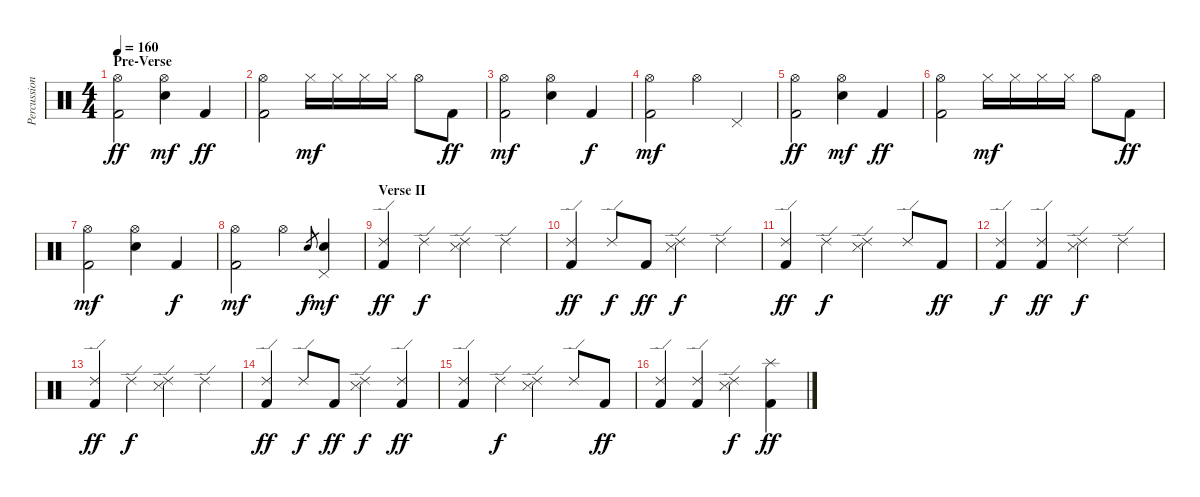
\track ("Percussion" "Percussion") {instrument percussion}
\staff {score}
\articulation defaults
\ts (4 4)
\section ("" "Pre-Verse")
\tempo 160
\clef neutral
\ks c
("Hi-Hat (open)" "Kick (hit) 2").2{dy ff} ("Hi-Hat (open)" "Electric Snare (hit)").4{dy mf} "Kick (hit) 2".4{dy ff} |
("Hi-Hat (open)" "Kick (hit) 2").2 "Hi-Hat (closed)".16{dy mf} "Hi-Hat (closed)".16 "Hi-Hat (closed)".16 "Hi-Hat (closed)".16 "Hi-Hat (open)".8 "Kick (hit) 2".8{dy ff} |
("Hi-Hat (open)" "Kick (hit) 2").2{dy mf} ("Hi-Hat (open)" "Electric Snare (hit)").4 "Kick (hit) 2".4{dy f} |
("Hi-Hat (open)" "Kick (hit) 2").2{dy mf} "Hi-Hat (open)".4 "Pedal Hi-Hat (hit)".4 |
("Hi-Hat (open)" "Kick (hit) 2").2{dy ff} ("Hi-Hat (open)" "Electric Snare (hit)").4{dy mf} "Kick (hit) 2".4{dy ff} |
("Hi-Hat (open)" "Kick (hit) 2").2 "Hi-Hat (closed)".16{dy mf} "Hi-Hat (closed)".16 "Hi-Hat (closed)".16 "Hi-Hat (closed)".16 "Hi-Hat (open)".8 "Kick (hit) 2".8{dy ff} |
("Hi-Hat (open)" "Kick (hit) 2").2{dy mf} ("Hi-Hat (open)" "Electric Snare (hit)").4 "Kick (hit) 2".4{dy f} |
("Hi-Hat (open)" "Kick (hit) 2").2{dy mf} "Hi-Hat (open)".4 "Electric Snare (hit)".8{gr dy f} ("Pedal Hi-Hat (hit)" "Electric Snare (hit)").4{dy mf} |
\section ("" "Verse II")
("Ride (edge) 2" "Kick (hit) 2").4{dy ff} "Ride (edge) 2".4{dy f} ("Ride (edge) 2" "Snare (side stick) 3").4 "Ride (edge) 2".4 |
("Ride (edge) 2" "Kick (hit) 2").4{dy ff} "Ride (edge) 2".8{dy f} "Kick (hit) 2".8{dy ff} ("Ride (edge) 2" "Snare (side stick) 3").4{dy f} "Ride (edge) 2".4 |
("Ride (edge) 2" "Kick (hit) 2").4{dy ff} "Ride (edge) 2".4{dy f} ("Ride (edge) 2" "Snare (side stick) 3").4 "Ride (edge) 2".8 "Kick (hit) 2".8{dy ff} |
("Ride (edge) 2" "Kick (hit) 2").4{dy f} ("Ride (edge) 2" "Kick (hit) 2").4{dy ff} ("Ride (edge) 2" "Snare (side stick) 3").4{dy f} "Ride (edge) 2".4 |
("Ride (edge) 2" "Kick (hit) 2").4{dy ff} "Ride (edge) 2".4{dy f} ("Ride (edge) 2" "Snare (side stick) 3").4 "Ride (edge) 2".4 |
("Ride (edge) 2" "Kick (hit) 2").4{dy ff} "Ride (edge) 2".8{dy f} "Kick (hit) 2".8{dy ff} ("Ride (edge) 2" "Snare (side stick) 3").4{dy f} ("Ride (edge) 2" "Kick (hit) 2").4{dy ff} |
("Ride (edge) 2" "Kick (hit) 2").4 "Ride (edge) 2".4{dy f} ("Ride (edge) 2" "Snare (side stick) 3").4 "Ride (edge) 2".8 "Kick (hit) 2".8{dy ff} |
("Ride (edge) 2" "Kick (hit) 2").4 ("Ride (edge) 2" "Kick (hit) 2").4 ("Ride (edge) 2" "Snare (side stick) 3").4{dy f} ("Splash (hit)" "Kick (hit) 2").4{dy ff}
